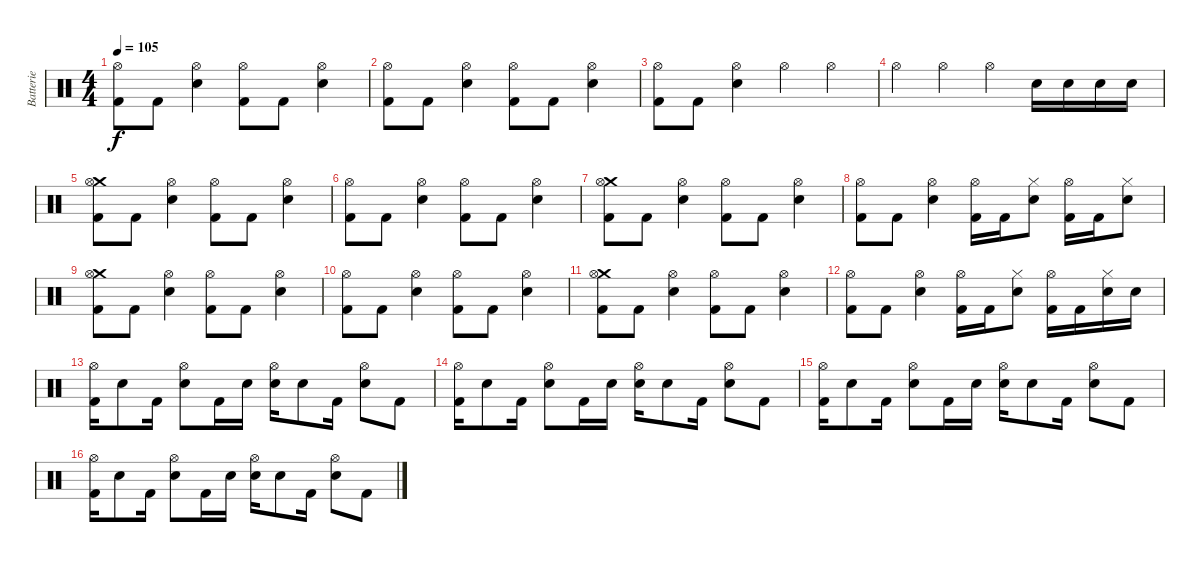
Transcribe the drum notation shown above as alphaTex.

\track ("Batterie" "Batterie") {instrument percussion}
\staff {score}
\articulation defaults
\ts (4 4)
\tempo 105
\clef neutral
\ks c
("Kick (hit) 2" "Hi-Hat (open)").8{dy f} "Kick (hit) 2".8 ("Electric Snare (hit)" "Hi-Hat (open)").4 ("Kick (hit) 2" "Hi-Hat (open)").8 "Kick (hit) 2".8 ("Electric Snare (hit)" "Hi-Hat (open)").4 |
("Kick (hit) 2" "Hi-Hat (open)").8 "Kick (hit) 2".8 ("Electric Snare (hit)" "Hi-Hat (open)").4 ("Kick (hit) 2" "Hi-Hat (open)").8 "Kick (hit) 2".8 ("Electric Snare (hit)" "Hi-Hat (open)").4 |
("Kick (hit) 2" "Hi-Hat (open)").8 "Kick (hit) 2".8 ("Electric Snare (hit)" "Hi-Hat (open)").4 "Hi-Hat (open)".4 "Hi-Hat (open)".4 |
"Hi-Hat (open)".4 "Hi-Hat (open)".4 "Hi-Hat (open)".4 "Electric Snare (hit)".16 "Electric Snare (hit)".16 "Electric Snare (hit)".16 "Electric Snare (hit)".16 |
("Kick (hit) 2" "Crash medium (hit)" "Hi-Hat (open)").8 "Kick (hit) 2".8 ("Electric Snare (hit)" "Hi-Hat (open)").4 ("Kick (hit) 2" "Hi-Hat (open)").8 "Kick (hit) 2".8 ("Electric Snare (hit)" "Hi-Hat (open)").4 |
("Kick (hit) 2" "Hi-Hat (open)").8 "Kick (hit) 2".8 ("Electric Snare (hit)" "Hi-Hat (open)").4 ("Kick (hit) 2" "Hi-Hat (open)").8 "Kick (hit) 2".8 ("Electric Snare (hit)" "Hi-Hat (open)").4 |
("Kick (hit) 2" "Crash medium (hit)" "Hi-Hat (open)").8 "Kick (hit) 2".8 ("Electric Snare (hit)" "Hi-Hat (open)").4 ("Kick (hit) 2" "Hi-Hat (open)").8 "Kick (hit) 2".8 ("Electric Snare (hit)" "Hi-Hat (open)").4 |
("Kick (hit) 2" "Hi-Hat (open)").8 "Kick (hit) 2".8 ("Electric Snare (hit)" "Hi-Hat (open)").4 ("Kick (hit) 2" "Hi-Hat (open)").16 "Kick (hit) 2".16 ("Electric Snare (hit)" "Hi-Hat (closed)").8 ("Kick (hit) 2" "Hi-Hat (open)").16 "Kick (hit) 2".16 ("Electric Snare (hit)" "Hi-Hat (closed)").8 |
("Kick (hit) 2" "Crash medium (hit)" "Hi-Hat (open)").8 "Kick (hit) 2".8 ("Electric Snare (hit)" "Hi-Hat (open)").4 ("Kick (hit) 2" "Hi-Hat (open)").8 "Kick (hit) 2".8 ("Electric Snare (hit)" "Hi-Hat (open)").4 |
("Kick (hit) 2" "Hi-Hat (open)").8 "Kick (hit) 2".8 ("Electric Snare (hit)" "Hi-Hat (open)").4 ("Kick (hit) 2" "Hi-Hat (open)").8 "Kick (hit) 2".8 ("Electric Snare (hit)" "Hi-Hat (open)").4 |
("Kick (hit) 2" "Crash medium (hit)" "Hi-Hat (open)").8 "Kick (hit) 2".8 ("Electric Snare (hit)" "Hi-Hat (open)").4 ("Kick (hit) 2" "Hi-Hat (open)").8 "Kick (hit) 2".8 ("Electric Snare (hit)" "Hi-Hat (open)").4 |
("Kick (hit) 2" "Hi-Hat (open)").8 "Kick (hit) 2".8 ("Electric Snare (hit)" "Hi-Hat (open)").4 ("Kick (hit) 2" "Hi-Hat (open)").16 "Kick (hit) 2".16 ("Electric Snare (hit)" "Hi-Hat (closed)").8 ("Kick (hit) 2" "Hi-Hat (open)").16 "Kick (hit) 2".16 ("Electric Snare (hit)" "Hi-Hat (closed)").16 "Electric Snare (hit)".16 |
("Kick (hit) 2" "Hi-Hat (open)").16 "Electric Snare (hit)".8 "Kick (hit) 2".16 ("Electric Snare (hit)" "Hi-Hat (open)").8 "Kick (hit) 2".16 "Electric Snare (hit)".16 ("Electric Snare (hit)" "Hi-Hat (open)").16 "Electric Snare (hit)".8 "Kick (hit) 2".16 ("Electric Snare (hit)" "Hi-Hat (open)").8 "Kick (hit) 2".8 |
("Kick (hit) 2" "Hi-Hat (open)").16 "Electric Snare (hit)".8 "Kick (hit) 2".16 ("Electric Snare (hit)" "Hi-Hat (open)").8 "Kick (hit) 2".16 "Electric Snare (hit)".16 ("Electric Snare (hit)" "Hi-Hat (open)").16 "Electric Snare (hit)".8 "Kick (hit) 2".16 ("Electric Snare (hit)" "Hi-Hat (open)").8 "Kick (hit) 2".8 |
("Kick (hit) 2" "Hi-Hat (open)").16 "Electric Snare (hit)".8 "Kick (hit) 2".16 ("Electric Snare (hit)" "Hi-Hat (open)").8 "Kick (hit) 2".16 "Electric Snare (hit)".16 ("Electric Snare (hit)" "Hi-Hat (open)").16 "Electric Snare (hit)".8 "Kick (hit) 2".16 ("Electric Snare (hit)" "Hi-Hat (open)").8 "Kick (hit) 2".8 |
("Kick (hit) 2" "Hi-Hat (open)").16 "Electric Snare (hit)".8 "Kick (hit) 2".16 ("Electric Snare (hit)" "Hi-Hat (open)").8 "Kick (hit) 2".16 "Electric Snare (hit)".16 ("Electric Snare (hit)" "Hi-Hat (open)").16 "Electric Snare (hit)".8 "Kick (hit) 2".16 ("Electric Snare (hit)" "Hi-Hat (open)").8 "Kick (hit) 2".8
